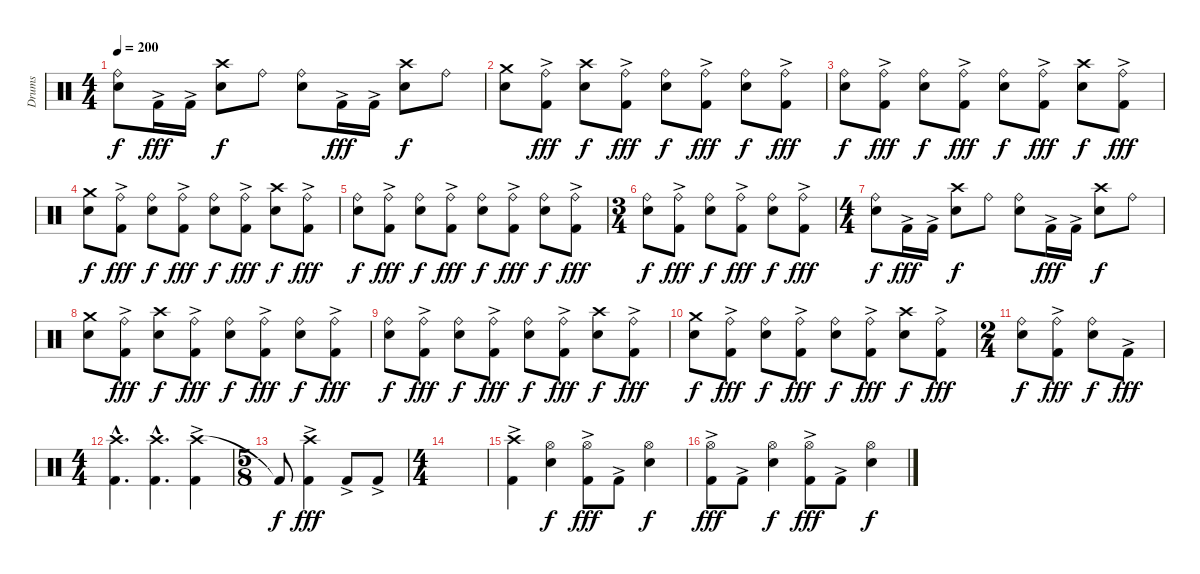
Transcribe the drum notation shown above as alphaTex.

\track ("Drums" "Drums") {instrument percussion}
\staff {score}
\articulation defaults
\ts (4 4)
\tempo 200
\clef neutral
\ks c
("Ride (bell)" "Snare (hit) 2").8{dy f} "Kick (hit) 2"{ac}.16{dy fff} "Kick (hit) 2"{ac}.16 ("Crash high (hit)" "Snare (hit) 2").8{dy f} "Ride (bell)".8 ("Ride (bell)" "Snare (hit) 2").8 "Kick (hit) 2"{ac}.16{dy fff} "Kick (hit) 2"{ac}.16 ("Crash high (hit)" "Snare (hit) 2").8{dy f} "Ride (bell)".8 |
("Crash medium (hit)" "Snare (hit) 2").8 ("Ride (bell)" "Kick (hit) 2"{ac}).8{dy fff} ("Crash high (hit)" "Snare (hit) 2").8{dy f} ("Ride (bell)" "Kick (hit) 2"{ac}).8{dy fff} ("Ride (bell)" "Snare (hit) 2").8{dy f} ("Ride (bell)" "Kick (hit) 2"{ac}).8{dy fff} ("Ride (bell)" "Snare (hit) 2").8{dy f} ("Ride (bell)" "Kick (hit) 2"{ac}).8{dy fff} |
("Ride (bell)" "Snare (hit) 2").8{dy f} ("Ride (bell)" "Kick (hit) 2"{ac}).8{dy fff} ("Ride (bell)" "Snare (hit) 2").8{dy f} ("Ride (bell)" "Kick (hit) 2"{ac}).8{dy fff} ("Ride (bell)" "Snare (hit) 2").8{dy f} ("Ride (bell)" "Kick (hit) 2"{ac}).8{dy fff} ("Crash high (hit)" "Snare (hit) 2").8{dy f} ("Ride (bell)" "Kick (hit) 2"{ac}).8{dy fff} |
("Crash medium (hit)" "Snare (hit) 2").8{dy f} ("Ride (bell)" "Kick (hit) 2"{ac}).8{dy fff} ("Ride (bell)" "Snare (hit) 2").8{dy f} ("Ride (bell)" "Kick (hit) 2"{ac}).8{dy fff} ("Ride (bell)" "Snare (hit) 2").8{dy f} ("Ride (bell)" "Kick (hit) 2"{ac}).8{dy fff} ("Crash high (hit)" "Snare (hit) 2").8{dy f} ("Ride (bell)" "Kick (hit) 2"{ac}).8{dy fff} |
("Ride (bell)" "Snare (hit) 2").8{dy f} ("Ride (bell)" "Kick (hit) 2"{ac}).8{dy fff} ("Ride (bell)" "Snare (hit) 2").8{dy f} ("Ride (bell)" "Kick (hit) 2"{ac}).8{dy fff} ("Ride (bell)" "Snare (hit) 2").8{dy f} ("Ride (bell)" "Kick (hit) 2"{ac}).8{dy fff} ("Ride (bell)" "Snare (hit) 2").8{dy f} ("Ride (bell)" "Kick (hit) 2"{ac}).8{dy fff} |
\ts (3 4)
("Ride (bell)" "Snare (hit) 2").8{dy f} ("Ride (bell)" "Kick (hit) 2"{ac}).8{dy fff} ("Ride (bell)" "Snare (hit) 2").8{dy f} ("Ride (bell)" "Kick (hit) 2"{ac}).8{dy fff} ("Ride (bell)" "Snare (hit) 2").8{dy f} ("Ride (bell)" "Kick (hit) 2"{ac}).8{dy fff} |
\ts (4 4)
("Ride (bell)" "Snare (hit) 2").8{dy f} "Kick (hit) 2"{ac}.16{dy fff} "Kick (hit) 2"{ac}.16 ("Crash high (hit)" "Snare (hit) 2").8{dy f} "Ride (bell)".8 ("Ride (bell)" "Snare (hit) 2").8 "Kick (hit) 2"{ac}.16{dy fff} "Kick (hit) 2"{ac}.16 ("Crash high (hit)" "Snare (hit) 2").8{dy f} "Ride (bell)".8 |
("Crash medium (hit)" "Snare (hit) 2").8 ("Ride (bell)" "Kick (hit) 2"{ac}).8{dy fff} ("Crash high (hit)" "Snare (hit) 2").8{dy f} ("Ride (bell)" "Kick (hit) 2"{ac}).8{dy fff} ("Ride (bell)" "Snare (hit) 2").8{dy f} ("Ride (bell)" "Kick (hit) 2"{ac}).8{dy fff} ("Ride (bell)" "Snare (hit) 2").8{dy f} ("Ride (bell)" "Kick (hit) 2"{ac}).8{dy fff} |
("Ride (bell)" "Snare (hit) 2").8{dy f} ("Ride (bell)" "Kick (hit) 2"{ac}).8{dy fff} ("Ride (bell)" "Snare (hit) 2").8{dy f} ("Ride (bell)" "Kick (hit) 2"{ac}).8{dy fff} ("Ride (bell)" "Snare (hit) 2").8{dy f} ("Ride (bell)" "Kick (hit) 2"{ac}).8{dy fff} ("Crash high (hit)" "Snare (hit) 2").8{dy f} ("Ride (bell)" "Kick (hit) 2"{ac}).8{dy fff} |
("Crash medium (hit)" "Snare (hit) 2").8{dy f} ("Ride (bell)" "Kick (hit) 2"{ac}).8{dy fff} ("Ride (bell)" "Snare (hit) 2").8{dy f} ("Ride (bell)" "Kick (hit) 2"{ac}).8{dy fff} ("Ride (bell)" "Snare (hit) 2").8{dy f} ("Ride (bell)" "Kick (hit) 2"{ac}).8{dy fff} ("Crash high (hit)" "Snare (hit) 2").8{dy f} ("Ride (bell)" "Kick (hit) 2"{ac}).8{dy fff} |
\ts (2 4)
("Ride (bell)" "Snare (hit) 2").8{dy f} ("Ride (bell)" "Kick (hit) 2"{ac}).8{dy fff} ("Ride (bell)" "Snare (hit) 2").8{dy f} "Kick (hit) 2"{ac}.8{dy fff} |
\ts (4 4)
("Crash high (hit)"{hac} "Kick (hit) 2"{hac}).4{d} ("Crash high (hit)"{hac} "Kick (hit) 2"{hac}).4{d} ("Crash high (hit)" "Kick (hit) 2"{ac}).4 |
\ts (5 8)
"Kick (hit) 2"{t}.8{dy f} ("Crash high (hit)" "Kick (hit) 2"{ac}).4{dy fff} "Kick (hit) 2"{ac}.8 "Kick (hit) 2"{ac}.8 |
\ts (4 4)
|
("Crash high (hit)" "Kick (hit) 2"{ac}).4 ("Hi-Hat (open)" "Snare (hit) 2").4{dy f} ("Hi-Hat (open)" "Kick (hit) 2"{ac}).8{dy fff} "Kick (hit) 2"{ac}.8 ("Hi-Hat (open)" "Snare (hit) 2").4{dy f} |
("Hi-Hat (open)" "Kick (hit) 2"{ac}).8{dy fff} "Kick (hit) 2"{ac}.8 ("Hi-Hat (open)" "Snare (hit) 2").4{dy f} ("Hi-Hat (open)" "Kick (hit) 2"{ac}).8{dy fff} "Kick (hit) 2"{ac}.8 ("Hi-Hat (open)" "Snare (hit) 2").4{dy f}
